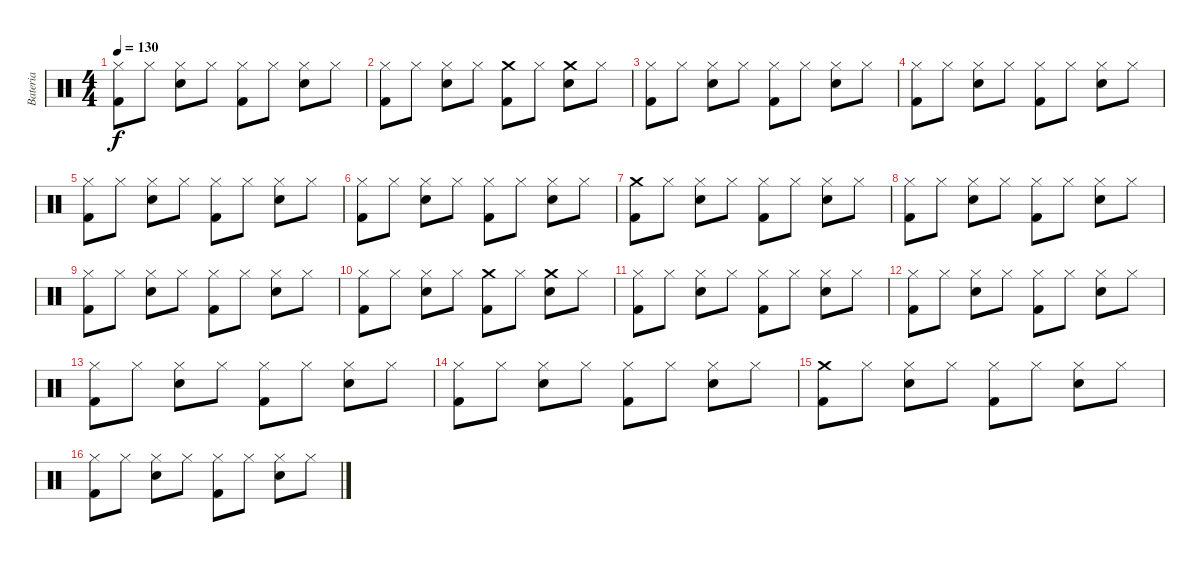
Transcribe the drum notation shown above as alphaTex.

\track ("Bateria" "Bateria") {instrument percussion}
\staff {score}
\articulation defaults
\ts (4 4)
\tempo 130
\clef neutral
\ks c
("Hi-Hat (closed)" "Kick (hit) 2").8{dy f} "Hi-Hat (closed)".8 ("Hi-Hat (closed)" "Electric Snare (hit)").8 "Hi-Hat (closed)".8 ("Hi-Hat (closed)" "Kick (hit) 2").8 "Hi-Hat (closed)".8 ("Hi-Hat (closed)" "Electric Snare (hit)").8 "Hi-Hat (closed)".8 |
("Hi-Hat (closed)" "Kick (hit) 2").8 "Hi-Hat (closed)".8 ("Hi-Hat (closed)" "Electric Snare (hit)").8 "Hi-Hat (closed)".8 ("Crash medium (hit)" "Kick (hit) 2").8 "Hi-Hat (closed)".8 ("Crash medium (hit)" "Electric Snare (hit)").8 "Hi-Hat (closed)".8 |
("Hi-Hat (closed)" "Kick (hit) 2").8 "Hi-Hat (closed)".8 ("Hi-Hat (closed)" "Electric Snare (hit)").8 "Hi-Hat (closed)".8 ("Hi-Hat (closed)" "Kick (hit) 2").8 "Hi-Hat (closed)".8 ("Hi-Hat (closed)" "Electric Snare (hit)").8 "Hi-Hat (closed)".8 |
("Hi-Hat (closed)" "Kick (hit) 2").8 "Hi-Hat (closed)".8 ("Hi-Hat (closed)" "Electric Snare (hit)").8 "Hi-Hat (closed)".8 ("Hi-Hat (closed)" "Kick (hit) 2").8 "Hi-Hat (closed)".8 ("Hi-Hat (closed)" "Electric Snare (hit)").8 "Hi-Hat (closed)".8 |
("Hi-Hat (closed)" "Kick (hit) 2").8 "Hi-Hat (closed)".8 ("Hi-Hat (closed)" "Electric Snare (hit)").8 "Hi-Hat (closed)".8 ("Hi-Hat (closed)" "Kick (hit) 2").8 "Hi-Hat (closed)".8 ("Hi-Hat (closed)" "Electric Snare (hit)").8 "Hi-Hat (closed)".8 |
("Hi-Hat (closed)" "Kick (hit) 2").8 "Hi-Hat (closed)".8 ("Hi-Hat (closed)" "Electric Snare (hit)").8 "Hi-Hat (closed)".8 ("Hi-Hat (closed)" "Kick (hit) 2").8 "Hi-Hat (closed)".8 ("Hi-Hat (closed)" "Electric Snare (hit)").8 "Hi-Hat (closed)".8 |
("Crash medium (hit)" "Kick (hit) 2").8 "Hi-Hat (closed)".8 ("Hi-Hat (closed)" "Electric Snare (hit)").8 "Hi-Hat (closed)".8 ("Hi-Hat (closed)" "Kick (hit) 2").8 "Hi-Hat (closed)".8 ("Hi-Hat (closed)" "Electric Snare (hit)").8 "Hi-Hat (closed)".8 |
("Hi-Hat (closed)" "Kick (hit) 2").8 "Hi-Hat (closed)".8 ("Hi-Hat (closed)" "Electric Snare (hit)").8 "Hi-Hat (closed)".8 ("Hi-Hat (closed)" "Kick (hit) 2").8 "Hi-Hat (closed)".8 ("Hi-Hat (closed)" "Electric Snare (hit)").8 "Hi-Hat (closed)".8 |
("Hi-Hat (closed)" "Kick (hit) 2").8 "Hi-Hat (closed)".8 ("Hi-Hat (closed)" "Electric Snare (hit)").8 "Hi-Hat (closed)".8 ("Hi-Hat (closed)" "Kick (hit) 2").8 "Hi-Hat (closed)".8 ("Hi-Hat (closed)" "Electric Snare (hit)").8 "Hi-Hat (closed)".8 |
("Hi-Hat (closed)" "Kick (hit) 2").8 "Hi-Hat (closed)".8 ("Hi-Hat (closed)" "Electric Snare (hit)").8 "Hi-Hat (closed)".8 ("Crash medium (hit)" "Kick (hit) 2").8 "Hi-Hat (closed)".8 ("Crash medium (hit)" "Electric Snare (hit)").8 "Hi-Hat (closed)".8 |
("Hi-Hat (closed)" "Kick (hit) 2").8 "Hi-Hat (closed)".8 ("Hi-Hat (closed)" "Electric Snare (hit)").8 "Hi-Hat (closed)".8 ("Hi-Hat (closed)" "Kick (hit) 2").8 "Hi-Hat (closed)".8 ("Hi-Hat (closed)" "Electric Snare (hit)").8 "Hi-Hat (closed)".8 |
("Hi-Hat (closed)" "Kick (hit) 2").8 "Hi-Hat (closed)".8 ("Hi-Hat (closed)" "Electric Snare (hit)").8 "Hi-Hat (closed)".8 ("Hi-Hat (closed)" "Kick (hit) 2").8 "Hi-Hat (closed)".8 ("Hi-Hat (closed)" "Electric Snare (hit)").8 "Hi-Hat (closed)".8 |
("Hi-Hat (closed)" "Kick (hit) 2").8 "Hi-Hat (closed)".8 ("Hi-Hat (closed)" "Electric Snare (hit)").8 "Hi-Hat (closed)".8 ("Hi-Hat (closed)" "Kick (hit) 2").8 "Hi-Hat (closed)".8 ("Hi-Hat (closed)" "Electric Snare (hit)").8 "Hi-Hat (closed)".8 |
("Hi-Hat (closed)" "Kick (hit) 2").8 "Hi-Hat (closed)".8 ("Hi-Hat (closed)" "Electric Snare (hit)").8 "Hi-Hat (closed)".8 ("Hi-Hat (closed)" "Kick (hit) 2").8 "Hi-Hat (closed)".8 ("Hi-Hat (closed)" "Electric Snare (hit)").8 "Hi-Hat (closed)".8 |
("Crash medium (hit)" "Kick (hit) 2").8 "Hi-Hat (closed)".8 ("Hi-Hat (closed)" "Electric Snare (hit)").8 "Hi-Hat (closed)".8 ("Hi-Hat (closed)" "Kick (hit) 2").8 "Hi-Hat (closed)".8 ("Hi-Hat (closed)" "Electric Snare (hit)").8 "Hi-Hat (closed)".8 |
("Hi-Hat (closed)" "Kick (hit) 2").8 "Hi-Hat (closed)".8 ("Hi-Hat (closed)" "Electric Snare (hit)").8 "Hi-Hat (closed)".8 ("Hi-Hat (closed)" "Kick (hit) 2").8 "Hi-Hat (closed)".8 ("Hi-Hat (closed)" "Electric Snare (hit)").8 "Hi-Hat (closed)".8
